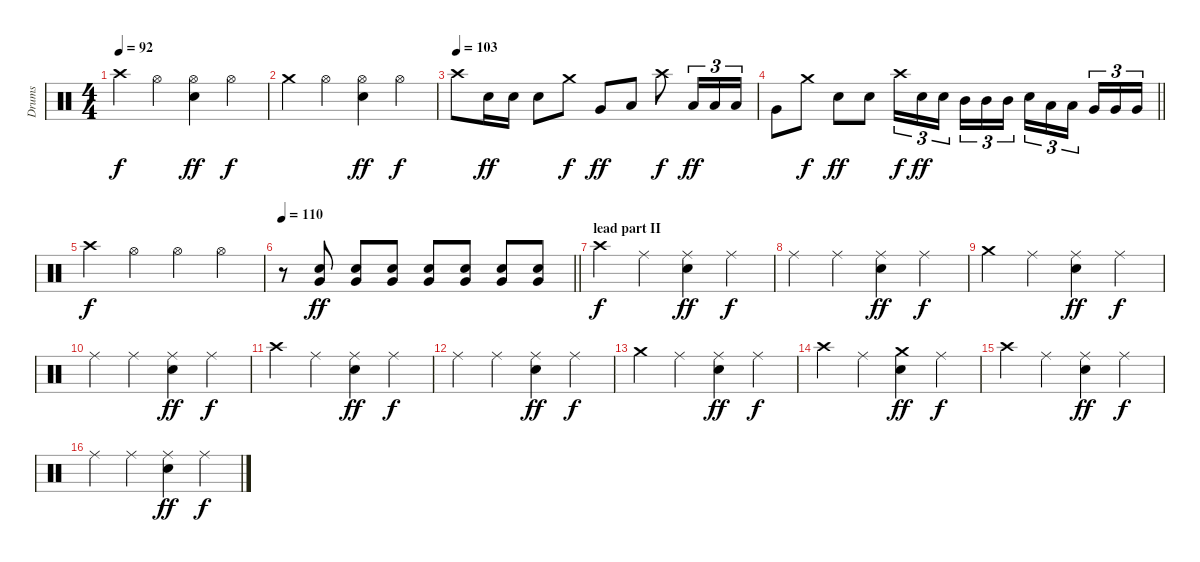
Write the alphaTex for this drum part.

\track ("Drums" "Drums") {instrument percussion}
\staff {score}
\articulation defaults
\ts (4 4)
\tempo 92
\clef neutral
\ks c "Crash high (hit)".4{dy f} "Hi-Hat (open)".4
("Hi-Hat (open)" "Snare (hit) 2").4{dy ff} "Hi-Hat (open)".4{dy f} |
"Crash medium (hit)".4 "Hi-Hat (open)".4 ("Hi-Hat (open)" "Snare (hit) 2").4{dy ff} "Hi-Hat (open)".4{dy f} |
\tempo (103)
"Crash high (hit)".8 "Snare (hit) 2".16{dy ff} "Snare (hit) 2".16 "Snare (hit) 2".8 "Crash medium (hit)".8{dy f} "Very Low Tom (hit)".8{dy ff} "Low Floor Tom (hit)".8 "Crash high (hit)".8{dy f} "Low Tom (hit)".16{tu (3 2) dy ff} "Low Tom (hit)".16{tu (3 2)} "Low Tom (hit)".16{tu (3 2)} |
\barLineRight lightlight "Very Low Tom (hit)".8 "Crash medium (hit)".8{dy f} "Snare (hit) 2".8{dy ff} "Snare (hit) 2".8 "Crash high (hit)".16{tu (3 2) dy f} "Snare (hit) 2".16{tu (3 2) dy ff} "Snare (hit) 2".16{tu (3 2) beam splitsecondary} "Mid Tom (hit)".16{tu (3 2)} "Mid Tom (hit)".16{tu (3 2)} "Mid Tom (hit)".16{tu (3 2)} "Snare (hit) 2".16{tu (3 2)} "Low Tom (hit)".16{tu (3 2)} "Low Tom (hit)".16{tu (3 2) beam splitsecondary} "Very Low Tom (hit)".16{tu (3 2)} "Very Low Tom (hit)".16{tu (3 2)} "Very Low Tom (hit)".16{tu (3 2)}
|
\section ("" "")
"Crash high (hit)".4{dy f} "Hi-Hat (open)".4 "Hi-Hat (open)".4 "Hi-Hat (open)".4 |
\tempo 110
\barLineRight lightlight
r.8 ("Snare (hit) 2" "Very Low Tom (hit)").8{dy ff} ("Snare (hit) 2" "Very Low Tom (hit)").8 ("Snare (hit) 2" "Very Low Tom (hit)").8 ("Snare (hit) 2" "Very Low Tom (hit)").8 ("Snare (hit) 2" "Very Low Tom (hit)").8 ("Snare (hit) 2" "Very Low Tom (hit)").8 ("Snare (hit) 2" "Very Low Tom (hit)").8 |
\section ("" "lead part II")
"Crash high (hit)".4{dy f} "Ride (middle)".4 ("Ride (middle)" "Snare (hit) 2").4{dy ff} "Ride (middle)".4{dy f} |
"Ride (middle)".4 "Ride (middle)".4 ("Ride (middle)" "Snare (hit) 2").4{dy ff} "Ride (middle)".4{dy f} |
"Crash medium (hit)".4 "Ride (middle)".4 ("Ride (middle)" "Snare (hit) 2").4{dy ff} "Ride (middle)".4{dy f} |
"Ride (middle)".4 "Ride (middle)".4 ("Ride (middle)" "Snare (hit) 2").4{dy ff} "Ride (middle)".4{dy f} |
"Crash high (hit)".4 "Ride (middle)".4 ("Ride (middle)" "Snare (hit) 2").4{dy ff} "Ride (middle)".4{dy f} |
"Ride (middle)".4 "Ride (middle)".4 ("Ride (middle)" "Snare (hit) 2").4{dy ff} "Ride (middle)".4{dy f} |
"Crash medium (hit)".4 "Ride (middle)".4 ("Ride (middle)" "Snare (hit) 2").4{dy ff} "Ride (middle)".4{dy f} |
"Crash high (hit)".4 "Ride (middle)".4 ("Crash medium (hit)" "Snare (hit) 2").4{dy ff} "Ride (middle)".4{dy f} |
"Crash high (hit)".4 "Ride (middle)".4 ("Ride (middle)" "Snare (hit) 2").4{dy ff} "Ride (middle)".4{dy f} |
"Ride (middle)".4 "Ride (middle)".4 ("Ride (middle)" "Snare (hit) 2").4{dy ff} "Ride (middle)".4{dy f}
